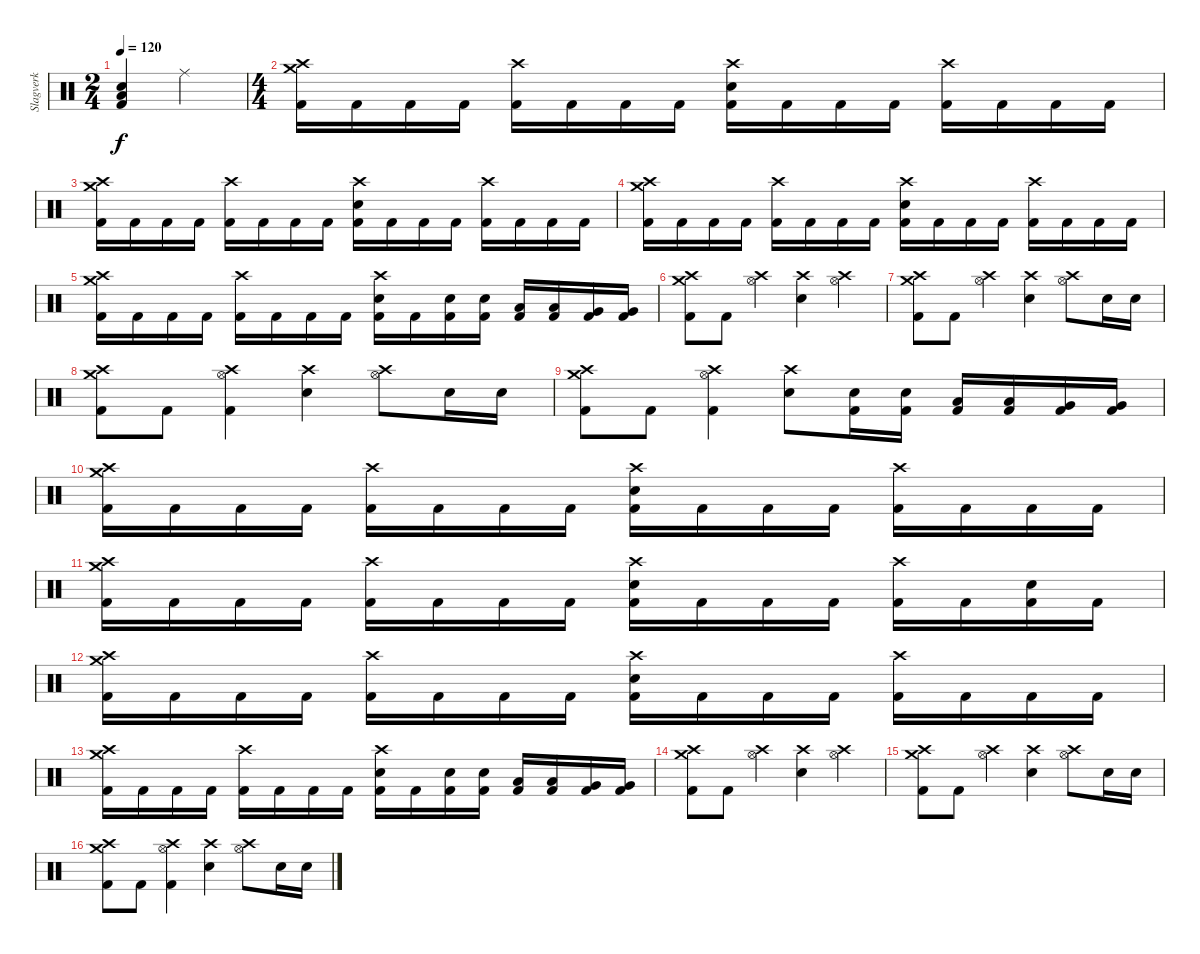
\track ("Slagverk" "Slagverk") {instrument percussion}
\staff {score}
\articulation defaults
\ts (2 4)
\tempo 120
\clef neutral
\ks c
("Electric Snare (hit)" "Low Floor Tom (hit)" "Kick (hit) 2").4{dy f} "Ride (middle)".4 |
\ts (4 4)
("Crash medium (hit)" "Crash high (hit)" "Kick (hit) 2").16 "Kick (hit) 2".16 "Kick (hit) 2".16 "Kick (hit) 2".16 ("Crash high (hit)" "Kick (hit) 2").16 "Kick (hit) 2".16 "Kick (hit) 2".16 "Kick (hit) 2".16 ("Crash high (hit)" "Electric Snare (hit)" "Kick (hit) 2").16 "Kick (hit) 2".16 "Kick (hit) 2".16 "Kick (hit) 2".16 ("Crash high (hit)" "Kick (hit) 2").16 "Kick (hit) 2".16 "Kick (hit) 2".16 "Kick (hit) 2".16 |
("Crash medium (hit)" "Crash high (hit)" "Kick (hit) 2").16 "Kick (hit) 2".16 "Kick (hit) 2".16 "Kick (hit) 2".16 ("Crash high (hit)" "Kick (hit) 2").16 "Kick (hit) 2".16 "Kick (hit) 2".16 "Kick (hit) 2".16 ("Crash high (hit)" "Electric Snare (hit)" "Kick (hit) 2").16 "Kick (hit) 2".16 "Kick (hit) 2".16 "Kick (hit) 2".16 ("Crash high (hit)" "Kick (hit) 2").16 "Kick (hit) 2".16 "Kick (hit) 2".16 "Kick (hit) 2".16 |
("Crash medium (hit)" "Crash high (hit)" "Kick (hit) 2").16 "Kick (hit) 2".16 "Kick (hit) 2".16 "Kick (hit) 2".16 ("Crash high (hit)" "Kick (hit) 2").16 "Kick (hit) 2".16 "Kick (hit) 2".16 "Kick (hit) 2".16 ("Crash high (hit)" "Electric Snare (hit)" "Kick (hit) 2").16 "Kick (hit) 2".16 "Kick (hit) 2".16 "Kick (hit) 2".16 ("Crash high (hit)" "Kick (hit) 2").16 "Kick (hit) 2".16 "Kick (hit) 2".16 "Kick (hit) 2".16 |
("Crash medium (hit)" "Crash high (hit)" "Kick (hit) 2").16 "Kick (hit) 2".16 "Kick (hit) 2".16 "Kick (hit) 2".16 ("Crash high (hit)" "Kick (hit) 2").16 "Kick (hit) 2".16 "Kick (hit) 2".16 "Kick (hit) 2".16 ("Crash high (hit)" "Electric Snare (hit)" "Kick (hit) 2").16 "Kick (hit) 2".16 ("Electric Snare (hit)" "Kick (hit) 2").16 ("Electric Snare (hit)" "Kick (hit) 2").16 ("Low Tom (hit)" "Kick (hit) 2").16 ("Low Tom (hit)" "Kick (hit) 2").16 ("Very Low Tom (hit)" "Kick (hit) 2").16 ("Very Low Tom (hit)" "Kick (hit) 2").16 |
("Crash high (hit)" "Crash medium (hit)" "Kick (hit) 2").8 "Kick (hit) 2".8 ("Crash high (hit)" "Hi-Hat (open)").4 ("Crash high (hit)" "Electric Snare (hit)").4 ("Crash high (hit)" "Hi-Hat (open)").4 |
("Crash high (hit)" "Crash medium (hit)" "Kick (hit) 2").8 "Kick (hit) 2".8 ("Crash high (hit)" "Hi-Hat (open)").4 ("Crash high (hit)" "Electric Snare (hit)").4 ("Crash high (hit)" "Hi-Hat (open)").8 "Electric Snare (hit)".16 "Electric Snare (hit)".16 |
("Crash high (hit)" "Crash medium (hit)" "Kick (hit) 2").8 "Kick (hit) 2".8 ("Crash high (hit)" "Hi-Hat (open)" "Kick (hit) 2").4 ("Crash high (hit)" "Electric Snare (hit)").4 ("Crash high (hit)" "Hi-Hat (open)").8 "Electric Snare (hit)".16 "Electric Snare (hit)".16 |
("Crash high (hit)" "Crash medium (hit)" "Kick (hit) 2").8 "Kick (hit) 2".8 ("Crash high (hit)" "Hi-Hat (open)" "Kick (hit) 2").4 ("Crash high (hit)" "Electric Snare (hit)").8 ("Electric Snare (hit)" "Kick (hit) 2").16 ("Electric Snare (hit)" "Kick (hit) 2").16 ("Low Tom (hit)" "Kick (hit) 2").16 ("Low Tom (hit)" "Kick (hit) 2").16 ("Very Low Tom (hit)" "Kick (hit) 2").16 ("Very Low Tom (hit)" "Kick (hit) 2").16 |
("Crash medium (hit)" "Crash high (hit)" "Kick (hit) 2").16 "Kick (hit) 2".16 "Kick (hit) 2".16 "Kick (hit) 2".16 ("Crash high (hit)" "Kick (hit) 2").16 "Kick (hit) 2".16 "Kick (hit) 2".16 "Kick (hit) 2".16 ("Crash high (hit)" "Electric Snare (hit)" "Kick (hit) 2").16 "Kick (hit) 2".16 "Kick (hit) 2".16 "Kick (hit) 2".16 ("Crash high (hit)" "Kick (hit) 2").16 "Kick (hit) 2".16 "Kick (hit) 2".16 "Kick (hit) 2".16 |
("Crash medium (hit)" "Crash high (hit)" "Kick (hit) 2").16 "Kick (hit) 2".16 "Kick (hit) 2".16 "Kick (hit) 2".16 ("Crash high (hit)" "Kick (hit) 2").16 "Kick (hit) 2".16 "Kick (hit) 2".16 "Kick (hit) 2".16 ("Crash high (hit)" "Electric Snare (hit)" "Kick (hit) 2").16 "Kick (hit) 2".16 "Kick (hit) 2".16 "Kick (hit) 2".16 ("Crash high (hit)" "Kick (hit) 2").16 "Kick (hit) 2".16 ("Electric Snare (hit)" "Kick (hit) 2").16 "Kick (hit) 2".16 |
("Crash medium (hit)" "Crash high (hit)" "Kick (hit) 2").16 "Kick (hit) 2".16 "Kick (hit) 2".16 "Kick (hit) 2".16 ("Crash high (hit)" "Kick (hit) 2").16 "Kick (hit) 2".16 "Kick (hit) 2".16 "Kick (hit) 2".16 ("Crash high (hit)" "Electric Snare (hit)" "Kick (hit) 2").16 "Kick (hit) 2".16 "Kick (hit) 2".16 "Kick (hit) 2".16 ("Crash high (hit)" "Kick (hit) 2").16 "Kick (hit) 2".16 "Kick (hit) 2".16 "Kick (hit) 2".16 |
("Crash medium (hit)" "Crash high (hit)" "Kick (hit) 2").16 "Kick (hit) 2".16 "Kick (hit) 2".16 "Kick (hit) 2".16 ("Crash high (hit)" "Kick (hit) 2").16 "Kick (hit) 2".16 "Kick (hit) 2".16 "Kick (hit) 2".16 ("Crash high (hit)" "Electric Snare (hit)" "Kick (hit) 2").16 "Kick (hit) 2".16 ("Electric Snare (hit)" "Kick (hit) 2").16 ("Electric Snare (hit)" "Kick (hit) 2").16 ("Low Tom (hit)" "Kick (hit) 2").16 ("Low Tom (hit)" "Kick (hit) 2").16 ("Very Low Tom (hit)" "Kick (hit) 2").16 ("Very Low Tom (hit)" "Kick (hit) 2").16 |
("Crash high (hit)" "Crash medium (hit)" "Kick (hit) 2").8 "Kick (hit) 2".8 ("Crash high (hit)" "Hi-Hat (open)").4 ("Crash high (hit)" "Electric Snare (hit)").4 ("Crash high (hit)" "Hi-Hat (open)").4 |
("Crash high (hit)" "Crash medium (hit)" "Kick (hit) 2").8 "Kick (hit) 2".8 ("Crash high (hit)" "Hi-Hat (open)").4 ("Crash high (hit)" "Electric Snare (hit)").4 ("Crash high (hit)" "Hi-Hat (open)").8 "Electric Snare (hit)".16 "Electric Snare (hit)".16 |
("Crash high (hit)" "Crash medium (hit)" "Kick (hit) 2").8 "Kick (hit) 2".8 ("Crash high (hit)" "Hi-Hat (open)" "Kick (hit) 2").4 ("Crash high (hit)" "Electric Snare (hit)").4 ("Crash high (hit)" "Hi-Hat (open)").8 "Electric Snare (hit)".16 "Electric Snare (hit)".16
